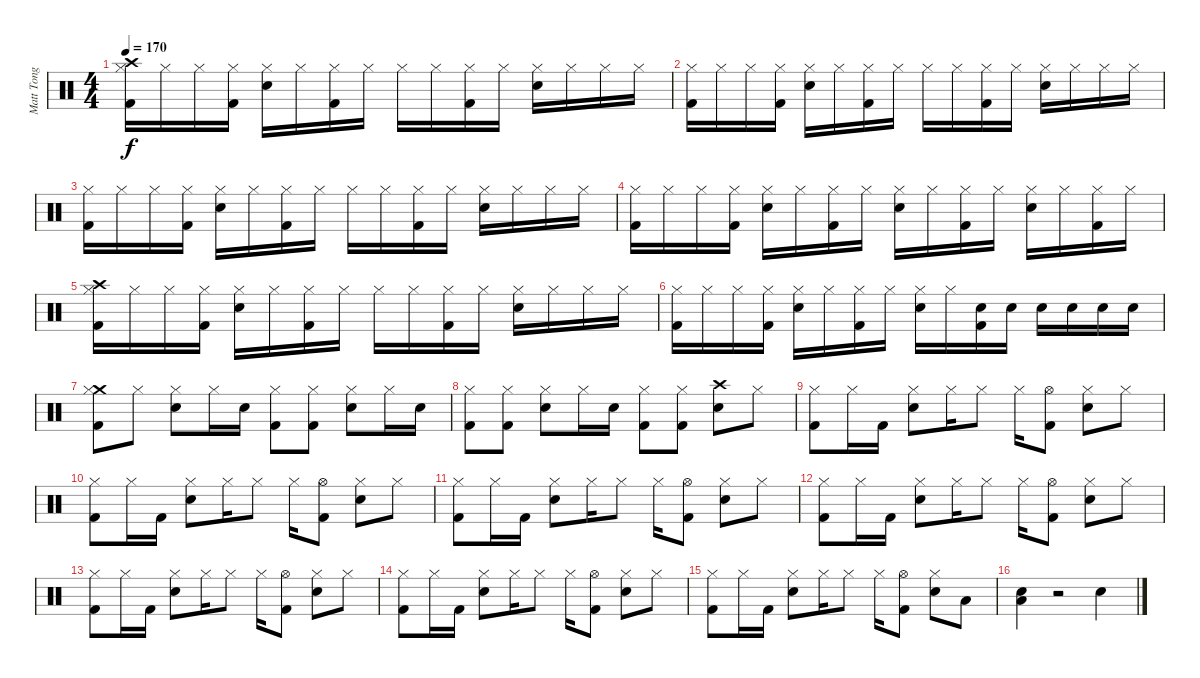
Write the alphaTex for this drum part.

\track ("Matt Tong" "Matt Tong") {instrument percussion}
\staff {score}
\articulation defaults
\ts (4 4)
\tempo 170
\clef neutral
\ks c
("Crash high (hit)" "Hi-Hat (closed)" "Kick (hit) 2").16{dy f} "Hi-Hat (closed)".16 "Hi-Hat (closed)".16 ("Hi-Hat (closed)" "Kick (hit) 2").16 ("Hi-Hat (closed)" "Electric Snare (hit)").16 "Hi-Hat (closed)".16 ("Hi-Hat (closed)" "Kick (hit) 2").16 "Hi-Hat (closed)".16 "Hi-Hat (closed)".16 "Hi-Hat (closed)".16 ("Hi-Hat (closed)" "Kick (hit) 2").16 "Hi-Hat (closed)".16 ("Hi-Hat (closed)" "Electric Snare (hit)").16 "Hi-Hat (closed)".16 "Hi-Hat (closed)".16 "Hi-Hat (closed)".16 |
("Hi-Hat (closed)" "Kick (hit) 2").16 "Hi-Hat (closed)".16 "Hi-Hat (closed)".16 ("Hi-Hat (closed)" "Kick (hit) 2").16 ("Hi-Hat (closed)" "Electric Snare (hit)").16 "Hi-Hat (closed)".16 ("Hi-Hat (closed)" "Kick (hit) 2").16 "Hi-Hat (closed)".16 "Hi-Hat (closed)".16 "Hi-Hat (closed)".16 ("Hi-Hat (closed)" "Kick (hit) 2").16 "Hi-Hat (closed)".16 ("Hi-Hat (closed)" "Electric Snare (hit)").16 "Hi-Hat (closed)".16 "Hi-Hat (closed)".16 "Hi-Hat (closed)".16 |
("Hi-Hat (closed)" "Kick (hit) 2").16 "Hi-Hat (closed)".16 "Hi-Hat (closed)".16 ("Hi-Hat (closed)" "Kick (hit) 2").16 ("Hi-Hat (closed)" "Electric Snare (hit)").16 "Hi-Hat (closed)".16 ("Hi-Hat (closed)" "Kick (hit) 2").16 "Hi-Hat (closed)".16 "Hi-Hat (closed)".16 "Hi-Hat (closed)".16 ("Hi-Hat (closed)" "Kick (hit) 2").16 "Hi-Hat (closed)".16 ("Hi-Hat (closed)" "Electric Snare (hit)").16 "Hi-Hat (closed)".16 "Hi-Hat (closed)".16 "Hi-Hat (closed)".16 |
("Hi-Hat (closed)" "Kick (hit) 2").16 "Hi-Hat (closed)".16 "Hi-Hat (closed)".16 ("Hi-Hat (closed)" "Kick (hit) 2").16 ("Hi-Hat (closed)" "Electric Snare (hit)").16 "Hi-Hat (closed)".16 ("Hi-Hat (closed)" "Kick (hit) 2").16 "Hi-Hat (closed)".16 ("Hi-Hat (closed)" "Electric Snare (hit)").16 "Hi-Hat (closed)".16 ("Hi-Hat (closed)" "Kick (hit) 2").16 "Hi-Hat (closed)".16 ("Hi-Hat (closed)" "Electric Snare (hit)").16 "Hi-Hat (closed)".16 ("Hi-Hat (closed)" "Kick (hit) 2").16 "Hi-Hat (closed)".16 |
("Crash high (hit)" "Hi-Hat (closed)" "Kick (hit) 2").16 "Hi-Hat (closed)".16 "Hi-Hat (closed)".16 ("Hi-Hat (closed)" "Kick (hit) 2").16 ("Hi-Hat (closed)" "Electric Snare (hit)").16 "Hi-Hat (closed)".16 ("Hi-Hat (closed)" "Kick (hit) 2").16 "Hi-Hat (closed)".16 "Hi-Hat (closed)".16 "Hi-Hat (closed)".16 ("Hi-Hat (closed)" "Kick (hit) 2").16 "Hi-Hat (closed)".16 ("Hi-Hat (closed)" "Electric Snare (hit)").16 "Hi-Hat (closed)".16 "Hi-Hat (closed)".16 "Hi-Hat (closed)".16 |
("Hi-Hat (closed)" "Kick (hit) 2").16 "Hi-Hat (closed)".16 "Hi-Hat (closed)".16 ("Hi-Hat (closed)" "Kick (hit) 2").16 ("Hi-Hat (closed)" "Electric Snare (hit)").16 "Hi-Hat (closed)".16 ("Hi-Hat (closed)" "Kick (hit) 2").16 "Hi-Hat (closed)".16 ("Hi-Hat (closed)" "Electric Snare (hit)").16 "Hi-Hat (closed)".16 ("Electric Snare (hit)" "Kick (hit) 2").16 "Electric Snare (hit)".16 "Electric Snare (hit)".16 "Electric Snare (hit)".16 "Electric Snare (hit)".16 "Electric Snare (hit)".16 |
("Crash medium (hit)" "Hi-Hat (closed)" "Kick (hit) 2").8 "Hi-Hat (closed)".8 ("Hi-Hat (closed)" "Electric Snare (hit)").8 "Hi-Hat (closed)".16 "Electric Snare (hit)".16 ("Hi-Hat (closed)" "Kick (hit) 2").8 ("Hi-Hat (closed)" "Kick (hit) 2").8 ("Hi-Hat (closed)" "Electric Snare (hit)").8 "Hi-Hat (closed)".16 "Electric Snare (hit)".16 |
("Hi-Hat (closed)" "Kick (hit) 2").8 ("Hi-Hat (closed)" "Kick (hit) 2").8 ("Hi-Hat (closed)" "Electric Snare (hit)").8 "Hi-Hat (closed)".16 "Electric Snare (hit)".16 ("Hi-Hat (closed)" "Kick (hit) 2").8 ("Hi-Hat (closed)" "Kick (hit) 2").8 ("Crash high (hit)" "Electric Snare (hit)").8 "Hi-Hat (closed)".8 |
("Hi-Hat (closed)" "Kick (hit) 2").8 "Hi-Hat (closed)".16 "Kick (hit) 2".16 ("Hi-Hat (closed)" "Electric Snare (hit)").8 "Hi-Hat (closed)".16 "Hi-Hat (closed)".8 "Hi-Hat (closed)".16 ("Hi-Hat (open)" "Kick (hit) 2").8 ("Hi-Hat (closed)" "Electric Snare (hit)").8 "Hi-Hat (closed)".8 |
("Hi-Hat (closed)" "Kick (hit) 2").8 "Hi-Hat (closed)".16 "Kick (hit) 2".16 ("Hi-Hat (closed)" "Electric Snare (hit)").8 "Hi-Hat (closed)".16 "Hi-Hat (closed)".8 "Hi-Hat (closed)".16 ("Hi-Hat (open)" "Kick (hit) 2").8 ("Hi-Hat (closed)" "Electric Snare (hit)").8 "Hi-Hat (closed)".8 |
("Hi-Hat (closed)" "Kick (hit) 2").8 "Hi-Hat (closed)".16 "Kick (hit) 2".16 ("Hi-Hat (closed)" "Electric Snare (hit)").8 "Hi-Hat (closed)".16 "Hi-Hat (closed)".8 "Hi-Hat (closed)".16 ("Hi-Hat (open)" "Kick (hit) 2").8 ("Hi-Hat (closed)" "Electric Snare (hit)").8 "Hi-Hat (closed)".8 |
("Hi-Hat (closed)" "Kick (hit) 2").8 "Hi-Hat (closed)".16 "Kick (hit) 2".16 ("Hi-Hat (closed)" "Electric Snare (hit)").8 "Hi-Hat (closed)".16 "Hi-Hat (closed)".8 "Hi-Hat (closed)".16 ("Hi-Hat (open)" "Kick (hit) 2").8 ("Hi-Hat (closed)" "Electric Snare (hit)").8 "Hi-Hat (closed)".8 |
("Hi-Hat (closed)" "Kick (hit) 2").8 "Hi-Hat (closed)".16 "Kick (hit) 2".16 ("Hi-Hat (closed)" "Electric Snare (hit)").8 "Hi-Hat (closed)".16 "Hi-Hat (closed)".8 "Hi-Hat (closed)".16 ("Hi-Hat (open)" "Kick (hit) 2").8 ("Hi-Hat (closed)" "Electric Snare (hit)").8 "Hi-Hat (closed)".8 |
("Hi-Hat (closed)" "Kick (hit) 2").8 "Hi-Hat (closed)".16 "Kick (hit) 2".16 ("Hi-Hat (closed)" "Electric Snare (hit)").8 "Hi-Hat (closed)".16 "Hi-Hat (closed)".8 "Hi-Hat (closed)".16 ("Hi-Hat (open)" "Kick (hit) 2").8 ("Hi-Hat (closed)" "Electric Snare (hit)").8 "Hi-Hat (closed)".8 |
("Hi-Hat (closed)" "Kick (hit) 2").8 "Hi-Hat (closed)".16 "Kick (hit) 2".16 ("Hi-Hat (closed)" "Electric Snare (hit)").8 "Hi-Hat (closed)".16 "Hi-Hat (closed)".8 "Hi-Hat (closed)".16 ("Hi-Hat (open)" "Kick (hit) 2").8 ("Hi-Hat (closed)" "Electric Snare (hit)").8 "Low Floor Tom (hit)".8 |
("Low Tom (hit)" "Electric Snare (hit)").4 r.2 "Electric Snare (hit)".4
